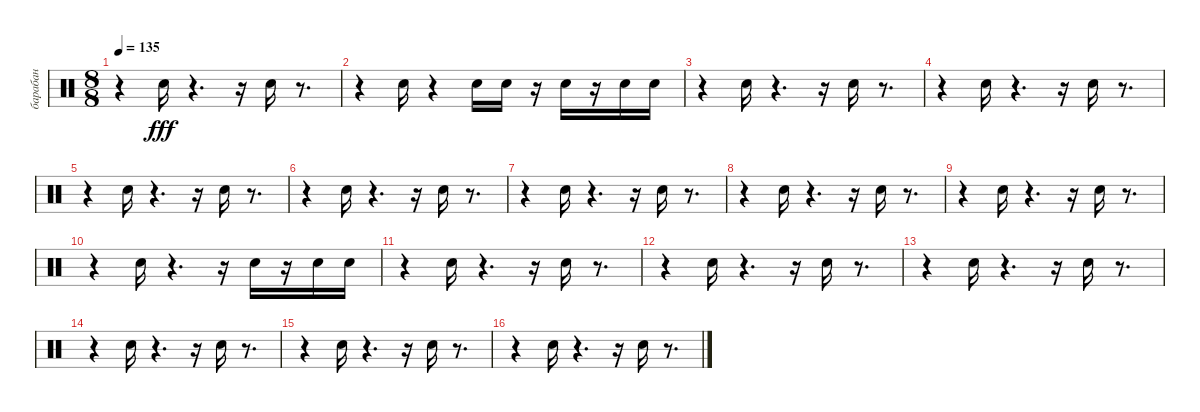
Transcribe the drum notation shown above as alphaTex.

\track ("барабан" "барабан") {instrument percussion}
\staff {score}
\articulation defaults
\ts (8 8)
\tempo 135
\clef neutral
\ks c
r.4{dy fff} "Snare (hit) 2".16 r.4{d} r.16 "Snare (hit) 2".16 r.8{d} |
r.4 "Snare (hit) 2".16 r.4 "Snare (hit) 2".16 "Snare (hit) 2".16 r.16 "Snare (hit) 2".16 r.16 "Snare (hit) 2".16 "Snare (hit) 2".16 |
r.4 "Snare (hit) 2".16 r.4{d} r.16 "Snare (hit) 2".16 r.8{d} |
r.4 "Snare (hit) 2".16 r.4{d} r.16 "Snare (hit) 2".16 r.8{d} |
r.4 "Snare (hit) 2".16 r.4{d} r.16 "Snare (hit) 2".16 r.8{d} |
r.4 "Snare (hit) 2".16 r.4{d} r.16 "Snare (hit) 2".16 r.8{d} |
r.4 "Snare (hit) 2".16 r.4{d} r.16 "Snare (hit) 2".16 r.8{d} |
r.4 "Snare (hit) 2".16 r.4{d} r.16 "Snare (hit) 2".16 r.8{d} |
r.4 "Snare (hit) 2".16 r.4{d} r.16 "Snare (hit) 2".16 r.8{d} |
r.4 "Snare (hit) 2".16 r.4{d} r.16 "Snare (hit) 2".16 r.16 "Snare (hit) 2".16 "Snare (hit) 2".16 |
r.4 "Snare (hit) 2".16 r.4{d} r.16 "Snare (hit) 2".16 r.8{d} |
r.4 "Snare (hit) 2".16 r.4{d} r.16 "Snare (hit) 2".16 r.8{d} |
r.4 "Snare (hit) 2".16 r.4{d} r.16 "Snare (hit) 2".16 r.8{d} |
r.4 "Snare (hit) 2".16 r.4{d} r.16 "Snare (hit) 2".16 r.8{d} |
r.4 "Snare (hit) 2".16 r.4{d} r.16 "Snare (hit) 2".16 r.8{d} |
r.4 "Snare (hit) 2".16 r.4{d} r.16 "Snare (hit) 2".16 r.8{d}
